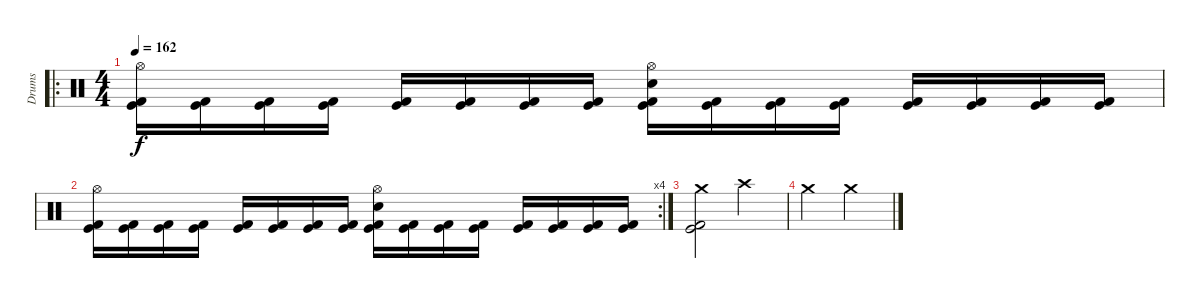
\track ("Drums" "Drums") {instrument percussion}
\staff {score}
\articulation defaults
\ro
\ts (4 4)
\tempo 162
\clef neutral
\ks c
("Hi-Hat (open)" "Kick (hit)" "Kick (hit) 2").16{dy f} ("Kick (hit)" "Kick (hit) 2").16 ("Kick (hit)" "Kick (hit) 2").16 ("Kick (hit)" "Kick (hit) 2").16 ("Kick (hit)" "Kick (hit) 2").16 ("Kick (hit)" "Kick (hit) 2").16 ("Kick (hit)" "Kick (hit) 2").16 ("Kick (hit)" "Kick (hit) 2").16 ("Hi-Hat (open)" "Snare (hit) 2" "Kick (hit)" "Kick (hit) 2").16 ("Kick (hit)" "Kick (hit) 2").16 ("Kick (hit)" "Kick (hit) 2").16 ("Kick (hit)" "Kick (hit) 2").16 ("Kick (hit)" "Kick (hit) 2").16 ("Kick (hit)" "Kick (hit) 2").16 ("Kick (hit)" "Kick (hit) 2").16 ("Kick (hit)" "Kick (hit) 2").16 |
\rc 4
("Hi-Hat (open)" "Kick (hit)" "Kick (hit) 2").16 ("Kick (hit)" "Kick (hit) 2").16 ("Kick (hit)" "Kick (hit) 2").16 ("Kick (hit)" "Kick (hit) 2").16 ("Kick (hit)" "Kick (hit) 2").16 ("Kick (hit)" "Kick (hit) 2").16 ("Kick (hit)" "Kick (hit) 2").16 ("Kick (hit)" "Kick (hit) 2").16 ("Hi-Hat (open)" "Snare (hit) 2" "Kick (hit)" "Kick (hit) 2").16 ("Kick (hit)" "Kick (hit) 2").16 ("Kick (hit)" "Kick (hit) 2").16 ("Kick (hit)" "Kick (hit) 2").16 ("Kick (hit)" "Kick (hit) 2").16 ("Kick (hit)" "Kick (hit) 2").16 ("Kick (hit)" "Kick (hit) 2").16 ("Kick (hit)" "Kick (hit) 2").16 |
("Crash medium (hit)" "Kick (hit)" "Kick (hit) 2").2 "Crash high (hit)".2{volume 3} |
"Crash medium (hit)".2{volume 1} "Crash medium (hit)".2{volume 1}
